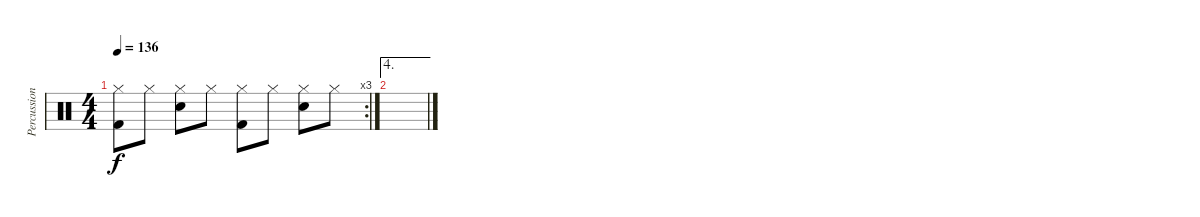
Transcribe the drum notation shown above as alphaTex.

\track ("Percussion" "Percussion") {instrument percussion}
\staff {score}
\articulation defaults
\rc 3
\ts (4 4)
\tempo 136
\clef neutral
\ks c
("Hi-Hat (closed)" "Kick (hit) 2").8{dy f} "Hi-Hat (closed)".8 ("Hi-Hat (closed)" "Snare (hit) 2").8 "Hi-Hat (closed)".8 ("Hi-Hat (closed)" "Kick (hit) 2").8 "Hi-Hat (closed)".8 ("Hi-Hat (closed)" "Snare (hit) 2").8 "Hi-Hat (closed)".8 |
\ae 4
